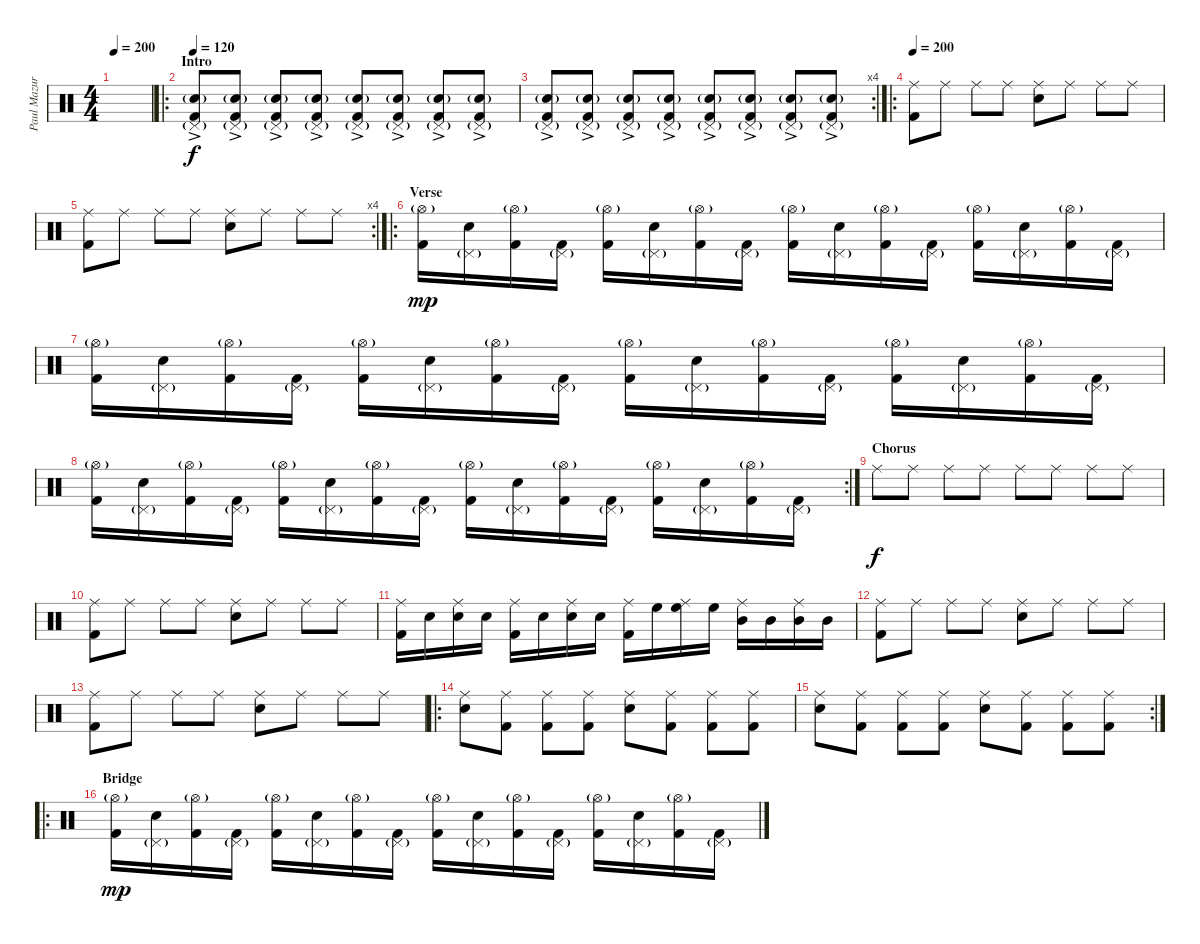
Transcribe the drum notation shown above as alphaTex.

\track ("Paul Mazurkiewicz" "Paul Mazur") {instrument percussion}
\staff {score}
\articulation defaults
\ts (4 4)
\tempo 200
\tempo 120
\tempo 200
\clef neutral
\ks c
|
\ro
\section ("" "Intro")
\tempo 120
("Pedal Hi-Hat (hit)"{g} "Snare (hit) 2"{g} "Kick (hit) 2"{ac}).8 ("Pedal Hi-Hat (hit)"{g} "Snare (hit) 2"{g} "Kick (hit) 2"{ac}).8 ("Pedal Hi-Hat (hit)"{g} "Snare (hit) 2"{g} "Kick (hit) 2"{ac}).8 ("Pedal Hi-Hat (hit)"{g} "Snare (hit) 2"{g} "Kick (hit) 2"{ac}).8 ("Pedal Hi-Hat (hit)"{g} "Snare (hit) 2"{g} "Kick (hit) 2"{ac}).8 ("Pedal Hi-Hat (hit)"{g} "Snare (hit) 2"{g} "Kick (hit) 2"{ac}).8 ("Pedal Hi-Hat (hit)"{g} "Snare (hit) 2"{g} "Kick (hit) 2"{ac}).8 ("Pedal Hi-Hat (hit)"{g} "Snare (hit) 2"{g} "Kick (hit) 2"{ac}).8 |
\rc 4
("Pedal Hi-Hat (hit)"{g} "Snare (hit) 2"{g} "Kick (hit) 2"{ac}).8 ("Pedal Hi-Hat (hit)"{g} "Snare (hit) 2"{g} "Kick (hit) 2"{ac}).8 ("Pedal Hi-Hat (hit)"{g} "Snare (hit) 2"{g} "Kick (hit) 2"{ac}).8 ("Pedal Hi-Hat (hit)"{g} "Snare (hit) 2"{g} "Kick (hit) 2"{ac}).8 ("Pedal Hi-Hat (hit)"{g} "Snare (hit) 2"{g} "Kick (hit) 2"{ac}).8 ("Pedal Hi-Hat (hit)"{g} "Snare (hit) 2"{g} "Kick (hit) 2"{ac}).8 ("Pedal Hi-Hat (hit)"{g} "Snare (hit) 2"{g} "Kick (hit) 2"{ac}).8 ("Pedal Hi-Hat (hit)"{g} "Snare (hit) 2"{g} "Kick (hit) 2"{ac}).8 |
\ro
\tempo 200
("Ride (middle)" "Kick (hit) 2").8{dy f} "Ride (middle)".8 "Ride (middle)".8 "Ride (middle)".8 ("Ride (middle)" "Electric Snare (hit)").8 "Ride (middle)".8 "Ride (middle)".8 "Ride (middle)".8 |
\rc 4
("Ride (middle)" "Kick (hit) 2").8 "Ride (middle)".8 "Ride (middle)".8 "Ride (middle)".8 ("Ride (middle)" "Electric Snare (hit)").8 "Ride (middle)".8 "Ride (middle)".8 "Ride (middle)".8 |
\ro
\section ("" "Verse")
("Hi-Hat (open)"{g} "Kick (hit) 2").16{dy mp} ("Pedal Hi-Hat (hit)"{g} "Electric Snare (hit)").16 ("Hi-Hat (open)"{g} "Kick (hit) 2").16 ("Pedal Hi-Hat (hit)"{g} "Kick (hit) 2").16 ("Hi-Hat (open)"{g} "Kick (hit) 2").16 ("Pedal Hi-Hat (hit)"{g} "Electric Snare (hit)").16 ("Hi-Hat (open)"{g} "Kick (hit) 2").16 ("Pedal Hi-Hat (hit)"{g} "Kick (hit) 2").16 ("Hi-Hat (open)"{g} "Kick (hit) 2").16 ("Pedal Hi-Hat (hit)"{g} "Electric Snare (hit)").16 ("Hi-Hat (open)"{g} "Kick (hit) 2").16 ("Pedal Hi-Hat (hit)"{g} "Kick (hit) 2").16 ("Hi-Hat (open)"{g} "Kick (hit) 2").16 ("Pedal Hi-Hat (hit)"{g} "Electric Snare (hit)").16 ("Hi-Hat (open)"{g} "Kick (hit) 2").16 ("Pedal Hi-Hat (hit)"{g} "Kick (hit) 2").16 |
("Hi-Hat (open)"{g} "Kick (hit) 2").16 ("Pedal Hi-Hat (hit)"{g} "Electric Snare (hit)").16 ("Hi-Hat (open)"{g} "Kick (hit) 2").16 ("Pedal Hi-Hat (hit)"{g} "Kick (hit) 2").16 ("Hi-Hat (open)"{g} "Kick (hit) 2").16 ("Pedal Hi-Hat (hit)"{g} "Electric Snare (hit)").16 ("Hi-Hat (open)"{g} "Kick (hit) 2").16 ("Pedal Hi-Hat (hit)"{g} "Kick (hit) 2").16 ("Hi-Hat (open)"{g} "Kick (hit) 2").16 ("Pedal Hi-Hat (hit)"{g} "Electric Snare (hit)").16 ("Hi-Hat (open)"{g} "Kick (hit) 2").16 ("Pedal Hi-Hat (hit)"{g} "Kick (hit) 2").16 ("Hi-Hat (open)"{g} "Kick (hit) 2").16 ("Pedal Hi-Hat (hit)"{g} "Electric Snare (hit)").16 ("Hi-Hat (open)"{g} "Kick (hit) 2").16 ("Pedal Hi-Hat (hit)"{g} "Kick (hit) 2").16 |
\rc 2
("Hi-Hat (open)"{g} "Kick (hit) 2").16 ("Pedal Hi-Hat (hit)"{g} "Electric Snare (hit)").16 ("Hi-Hat (open)"{g} "Kick (hit) 2").16 ("Pedal Hi-Hat (hit)"{g} "Kick (hit) 2").16 ("Hi-Hat (open)"{g} "Kick (hit) 2").16 ("Pedal Hi-Hat (hit)"{g} "Electric Snare (hit)").16 ("Hi-Hat (open)"{g} "Kick (hit) 2").16 ("Pedal Hi-Hat (hit)"{g} "Kick (hit) 2").16 ("Hi-Hat (open)"{g} "Kick (hit) 2").16 ("Pedal Hi-Hat (hit)"{g} "Electric Snare (hit)").16 ("Hi-Hat (open)"{g} "Kick (hit) 2").16 ("Pedal Hi-Hat (hit)"{g} "Kick (hit) 2").16 ("Hi-Hat (open)"{g} "Kick (hit) 2").16 ("Pedal Hi-Hat (hit)"{g} "Electric Snare (hit)").16 ("Hi-Hat (open)"{g} "Kick (hit) 2").16 ("Pedal Hi-Hat (hit)"{g} "Kick (hit) 2").16 |
\section ("" "Chorus")
"Ride (middle)".8{dy f} "Ride (middle)".8 "Ride (middle)".8 "Ride (middle)".8 "Ride (middle)".8 "Ride (middle)".8 "Ride (middle)".8 "Ride (middle)".8 |
("Ride (middle)" "Kick (hit) 2").8 "Ride (middle)".8 "Ride (middle)".8 "Ride (middle)".8 ("Ride (middle)" "Electric Snare (hit)").8 "Ride (middle)".8 "Ride (middle)".8 "Ride (middle)".8 |
("Ride (middle)" "Kick (hit) 2").16 "Electric Snare (hit)".16 ("Ride (middle)" "Electric Snare (hit)").16 "Electric Snare (hit)".16 ("Ride (middle)" "Kick (hit) 2").16 "Electric Snare (hit)".16 ("Ride (middle)" "Electric Snare (hit)").16 "Electric Snare (hit)".16 ("Ride (middle)" "Kick (hit) 2").16 "High Floor Tom (hit)".16 ("Ride (middle)" "High Floor Tom (hit)").16 "High Floor Tom (hit)".16 ("Ride (middle)" "Mid Tom (hit)").16 "Mid Tom (hit)".16 ("Ride (middle)" "Mid Tom (hit)").16 "Mid Tom (hit)".16 |
("Ride (middle)" "Kick (hit) 2").8 "Ride (middle)".8 "Ride (middle)".8 "Ride (middle)".8 ("Ride (middle)" "Electric Snare (hit)").8 "Ride (middle)".8 "Ride (middle)".8 "Ride (middle)".8 |
("Ride (middle)" "Kick (hit) 2").8 "Ride (middle)".8 "Ride (middle)".8 "Ride (middle)".8 ("Ride (middle)" "Electric Snare (hit)").8 "Ride (middle)".8 "Ride (middle)".8 "Ride (middle)".8 |
\ro
("Ride (middle)" "Electric Snare (hit)").8 ("Ride (middle)" "Kick (hit) 2").8 ("Ride (middle)" "Kick (hit) 2").8 ("Ride (middle)" "Kick (hit) 2").8 ("Ride (middle)" "Electric Snare (hit)").8 ("Ride (middle)" "Kick (hit) 2").8 ("Ride (middle)" "Kick (hit) 2").8 ("Ride (middle)" "Kick (hit) 2").8 |
\rc 2
("Ride (middle)" "Electric Snare (hit)").8 ("Ride (middle)" "Kick (hit) 2").8 ("Ride (middle)" "Kick (hit) 2").8 ("Ride (middle)" "Kick (hit) 2").8 ("Ride (middle)" "Electric Snare (hit)").8 ("Ride (middle)" "Kick (hit) 2").8 ("Ride (middle)" "Kick (hit) 2").8 ("Ride (middle)" "Kick (hit) 2").8 |
\ro
\section ("" "Bridge")
("Hi-Hat (open)"{g} "Kick (hit) 2").16{dy mp} ("Pedal Hi-Hat (hit)"{g} "Electric Snare (hit)").16 ("Hi-Hat (open)"{g} "Kick (hit) 2").16 ("Pedal Hi-Hat (hit)"{g} "Kick (hit) 2").16 ("Hi-Hat (open)"{g} "Kick (hit) 2").16 ("Pedal Hi-Hat (hit)"{g} "Electric Snare (hit)").16 ("Hi-Hat (open)"{g} "Kick (hit) 2").16 ("Pedal Hi-Hat (hit)"{g} "Kick (hit) 2").16 ("Hi-Hat (open)"{g} "Kick (hit) 2").16 ("Pedal Hi-Hat (hit)"{g} "Electric Snare (hit)").16 ("Hi-Hat (open)"{g} "Kick (hit) 2").16 ("Pedal Hi-Hat (hit)"{g} "Kick (hit) 2").16 ("Hi-Hat (open)"{g} "Kick (hit) 2").16 ("Pedal Hi-Hat (hit)"{g} "Electric Snare (hit)").16 ("Hi-Hat (open)"{g} "Kick (hit) 2").16 ("Pedal Hi-Hat (hit)"{g} "Kick (hit) 2").16
